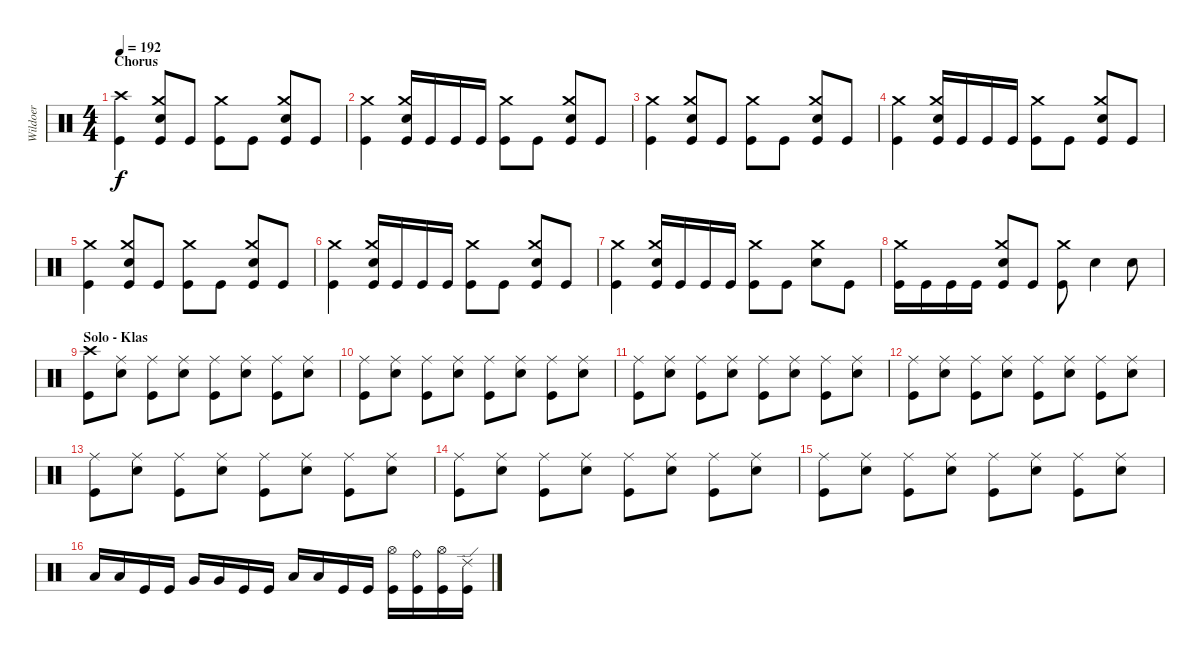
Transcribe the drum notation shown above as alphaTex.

\track ("Wildoer" "Wildoer") {instrument percussion}
\staff {score}
\articulation defaults
\ts (4 4)
\section ("" "Chorus")
\tempo 192
\clef neutral
\ks c
("Crash high (hit)" "Kick (hit)").4{dy f} ("Crash medium (hit)" "Electric Snare (hit)" "Kick (hit)").8 "Kick (hit)".8 ("Crash medium (hit)" "Kick (hit)").8 "Kick (hit)".8 ("Crash medium (hit)" "Electric Snare (hit)" "Kick (hit)").8 "Kick (hit)".8 |
("Crash medium (hit)" "Kick (hit)").4 ("Crash medium (hit)" "Electric Snare (hit)" "Kick (hit)").16 "Kick (hit)".16 "Kick (hit)".16 "Kick (hit)".16 ("Crash medium (hit)" "Kick (hit)").8 "Kick (hit)".8 ("Crash medium (hit)" "Electric Snare (hit)" "Kick (hit)").8 "Kick (hit)".8 |
("Crash medium (hit)" "Kick (hit)").4 ("Crash medium (hit)" "Electric Snare (hit)" "Kick (hit)").8 "Kick (hit)".8 ("Crash medium (hit)" "Kick (hit)").8 "Kick (hit)".8 ("Crash medium (hit)" "Electric Snare (hit)" "Kick (hit)").8 "Kick (hit)".8 |
("Crash medium (hit)" "Kick (hit)").4 ("Crash medium (hit)" "Electric Snare (hit)" "Kick (hit)").16 "Kick (hit)".16 "Kick (hit)".16 "Kick (hit)".16 ("Crash medium (hit)" "Kick (hit)").8 "Kick (hit)".8 ("Crash medium (hit)" "Electric Snare (hit)" "Kick (hit)").8 "Kick (hit)".8 |
("Crash medium (hit)" "Kick (hit)").4 ("Crash medium (hit)" "Electric Snare (hit)" "Kick (hit)").8 "Kick (hit)".8 ("Crash medium (hit)" "Kick (hit)").8 "Kick (hit)".8 ("Crash medium (hit)" "Electric Snare (hit)" "Kick (hit)").8 "Kick (hit)".8 |
("Crash medium (hit)" "Kick (hit)").4 ("Crash medium (hit)" "Electric Snare (hit)" "Kick (hit)").16 "Kick (hit)".16 "Kick (hit)".16 "Kick (hit)".16 ("Crash medium (hit)" "Kick (hit)").8 "Kick (hit)".8 ("Crash medium (hit)" "Electric Snare (hit)" "Kick (hit)").8 "Kick (hit)".8 |
("Crash medium (hit)" "Kick (hit)").4 ("Crash medium (hit)" "Electric Snare (hit)" "Kick (hit)").16 "Kick (hit)".16 "Kick (hit)".16 "Kick (hit)".16 ("Crash medium (hit)" "Kick (hit)").8 "Kick (hit)".8 ("Crash medium (hit)" "Electric Snare (hit)").8 "Kick (hit)".8 |
("Crash medium (hit)" "Kick (hit)").16 "Kick (hit)".16 "Kick (hit)".16 "Kick (hit)".16 ("Crash medium (hit)" "Electric Snare (hit)" "Kick (hit)").8 "Kick (hit)".8 ("Crash medium (hit)" "Kick (hit)").8 "Electric Snare (hit)".4 "Electric Snare (hit)".8 |
\section ("" "Solo - Klas")
("Crash high (hit)" "Kick (hit)").8 ("Ride (middle)" "Electric Snare (hit)").8 ("Ride (middle)" "Kick (hit)").8 ("Ride (middle)" "Electric Snare (hit)").8 ("Ride (middle)" "Kick (hit)").8 ("Ride (middle)" "Electric Snare (hit)").8 ("Ride (middle)" "Kick (hit)").8 ("Ride (middle)" "Electric Snare (hit)").8 |
("Ride (middle)" "Kick (hit)").8 ("Ride (middle)" "Electric Snare (hit)").8 ("Ride (middle)" "Kick (hit)").8 ("Ride (middle)" "Electric Snare (hit)").8 ("Ride (middle)" "Kick (hit)").8 ("Ride (middle)" "Electric Snare (hit)").8 ("Ride (middle)" "Kick (hit)").8 ("Ride (middle)" "Electric Snare (hit)").8 |
("Ride (middle)" "Kick (hit)").8 ("Ride (middle)" "Electric Snare (hit)").8 ("Ride (middle)" "Kick (hit)").8 ("Ride (middle)" "Electric Snare (hit)").8 ("Ride (middle)" "Kick (hit)").8 ("Ride (middle)" "Electric Snare (hit)").8 ("Ride (middle)" "Kick (hit)").8 ("Ride (middle)" "Electric Snare (hit)").8 |
("Ride (middle)" "Kick (hit)").8 ("Ride (middle)" "Electric Snare (hit)").8 ("Ride (middle)" "Kick (hit)").8 ("Ride (middle)" "Electric Snare (hit)").8 ("Ride (middle)" "Kick (hit)").8 ("Ride (middle)" "Electric Snare (hit)").8 ("Ride (middle)" "Kick (hit)").8 ("Ride (middle)" "Electric Snare (hit)").8 |
("Ride (middle)" "Kick (hit)").8 ("Ride (middle)" "Electric Snare (hit)").8 ("Ride (middle)" "Kick (hit)").8 ("Ride (middle)" "Electric Snare (hit)").8 ("Ride (middle)" "Kick (hit)").8 ("Ride (middle)" "Electric Snare (hit)").8 ("Ride (middle)" "Kick (hit)").8 ("Ride (middle)" "Electric Snare (hit)").8 |
("Ride (middle)" "Kick (hit)").8 ("Ride (middle)" "Electric Snare (hit)").8 ("Ride (middle)" "Kick (hit)").8 ("Ride (middle)" "Electric Snare (hit)").8 ("Ride (middle)" "Kick (hit)").8 ("Ride (middle)" "Electric Snare (hit)").8 ("Ride (middle)" "Kick (hit)").8 ("Ride (middle)" "Electric Snare (hit)").8 |
("Ride (middle)" "Kick (hit)").8 ("Ride (middle)" "Electric Snare (hit)").8 ("Ride (middle)" "Kick (hit)").8 ("Ride (middle)" "Electric Snare (hit)").8 ("Ride (middle)" "Kick (hit)").8 ("Ride (middle)" "Electric Snare (hit)").8 ("Ride (middle)" "Kick (hit)").8 ("Ride (middle)" "Electric Snare (hit)").8 |
"Low Tom (hit)".16 "Low Tom (hit)".16 "Kick (hit)".16 "Kick (hit)".16 "Very Low Tom (hit)".16 "Very Low Tom (hit)".16 "Kick (hit)".16 "Kick (hit)".16 "Low Floor Tom (hit)".16 "Low Floor Tom (hit)".16 "Kick (hit)".16 "Kick (hit)".16 ("Hi-Hat (open)" "Kick (hit)").16 ("Ride (bell)" "Kick (hit)").16 ("Hi-Hat (open)" "Kick (hit)").16 ("Ride (edge) 2" "Kick (hit)").16
